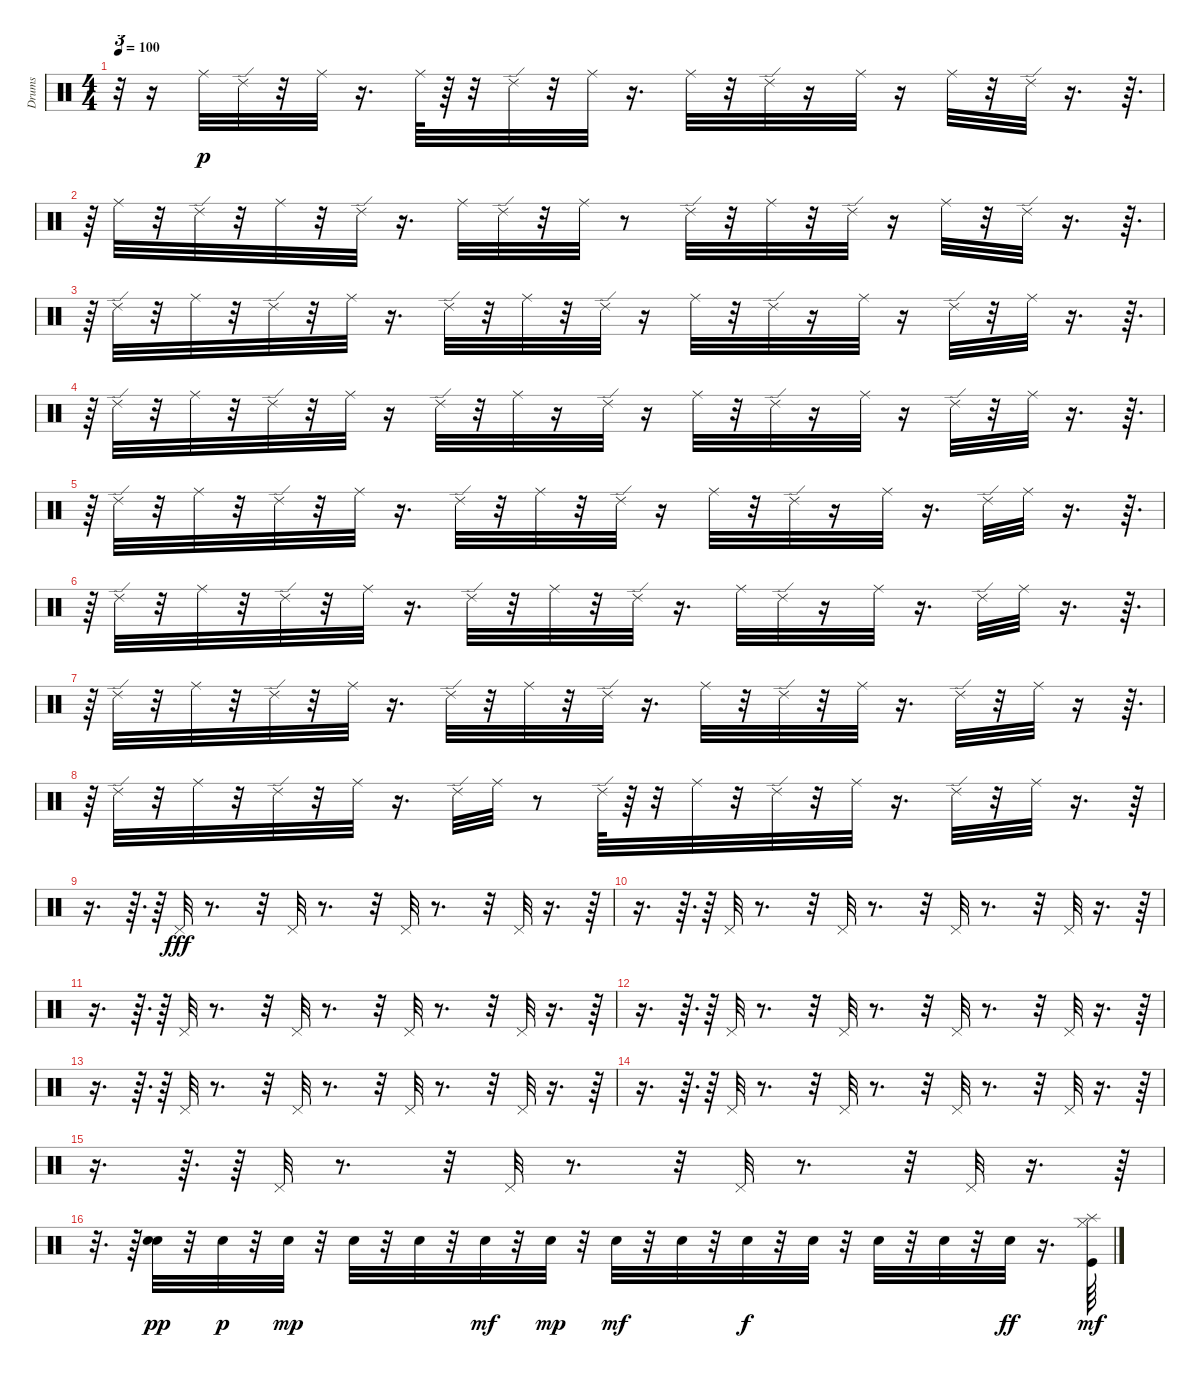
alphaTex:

\track ("Drums" "Drums") {instrument percussion}
\staff {score}
\articulation defaults
\ts (4 4)
\tempo 100
\clef neutral
\ks c
r.32{tu (3 2) dy p} r.16 "Ride (middle)".32 "Ride (edge) 2".32 r.32 "Ride (middle)".32 r.16{d} "Ride (middle)".64 r.64 r.32 "Ride (edge) 2".32 r.32 "Ride (middle)".32 r.16{d} "Ride (middle)".32 r.32 "Ride (edge) 2".32 r.16 "Ride (middle)".32 r.16 "Ride (middle)".32 r.32 "Ride (edge) 2".32 r.16{d} r.64{d} |
r.64 "Ride (middle)".32 r.32 "Ride (edge) 2".32 r.32 "Ride (middle)".32 r.32 "Ride (edge) 2".32 r.16{d} "Ride (middle)".32 "Ride (edge) 2".32 r.32 "Ride (middle)".32 r.8 "Ride (edge) 2".32 r.32 "Ride (middle)".32 r.32 "Ride (edge) 2".32 r.16 "Ride (middle)".32 r.32 "Ride (edge) 2".32 r.16{d} r.64{d} |
r.64 "Ride (edge) 2".32 r.32 "Ride (middle)".32 r.32 "Ride (edge) 2".32 r.32 "Ride (middle)".32 r.16{d} "Ride (edge) 2".32 r.32 "Ride (middle)".32 r.32 "Ride (edge) 2".32 r.16 "Ride (middle)".32 r.32 "Ride (edge) 2".32 r.16 "Ride (middle)".32 r.16 "Ride (edge) 2".32 r.32 "Ride (middle)".32 r.16{d} r.64{d} |
r.64 "Ride (edge) 2".32 r.32 "Ride (middle)".32 r.32 "Ride (edge) 2".32 r.32 "Ride (middle)".32 r.16 "Ride (edge) 2".32 r.32 "Ride (middle)".32 r.16 "Ride (edge) 2".32 r.16 "Ride (middle)".32 r.32 "Ride (edge) 2".32 r.16 "Ride (middle)".32 r.16 "Ride (edge) 2".32 r.32 "Ride (middle)".32 r.16{d} r.64{d} |
r.64 "Ride (edge) 2".32 r.32 "Ride (middle)".32 r.32 "Ride (edge) 2".32 r.32 "Ride (middle)".32 r.16{d} "Ride (edge) 2".32 r.32 "Ride (middle)".32 r.32 "Ride (edge) 2".32 r.16 "Ride (middle)".32 r.32 "Ride (edge) 2".32 r.16 "Ride (middle)".32 r.16{d} "Ride (edge) 2".32 "Ride (middle)".32 r.16{d} r.64{d} |
r.64 "Ride (edge) 2".32 r.32 "Ride (middle)".32 r.32 "Ride (edge) 2".32 r.32 "Ride (middle)".32 r.16{d} "Ride (edge) 2".32 r.32 "Ride (middle)".32 r.32 "Ride (edge) 2".32 r.16{d} "Ride (middle)".32 "Ride (edge) 2".32 r.16 "Ride (middle)".32 r.16{d} "Ride (edge) 2".32 "Ride (middle)".32 r.16{d} r.64{d} |
r.64 "Ride (edge) 2".32 r.32 "Ride (middle)".32 r.32 "Ride (edge) 2".32 r.32 "Ride (middle)".32 r.16{d} "Ride (edge) 2".32 r.32 "Ride (middle)".32 r.32 "Ride (edge) 2".32 r.16{d} "Ride (middle)".32 r.32 "Ride (edge) 2".32 r.32 "Ride (middle)".32 r.16{d} "Ride (edge) 2".32 r.32 "Ride (middle)".32 r.16 r.64{d} |
r.64 "Ride (edge) 2".32 r.32 "Ride (middle)".32 r.32 "Ride (edge) 2".32 r.32 "Ride (middle)".32 r.16{d} "Ride (edge) 2".32 "Ride (middle)".32 r.8 "Ride (edge) 2".64 r.64 r.32 "Ride (middle)".32 r.32 "Ride (edge) 2".32 r.32 "Ride (middle)".32 r.16{d} "Ride (edge) 2".32 r.32 "Ride (middle)".32 r.16{d} r.64 |
r.16{d} r.64{d} r.64 "Pedal Hi-Hat (hit)".32{dy fff} r.8{d} r.32 "Pedal Hi-Hat (hit)".32 r.8{d} r.32 "Pedal Hi-Hat (hit)".32 r.8{d} r.32 "Pedal Hi-Hat (hit)".32 r.16{d} r.64 |
r.16{d} r.64{d} r.64 "Pedal Hi-Hat (hit)".32 r.8{d} r.32 "Pedal Hi-Hat (hit)".32 r.8{d} r.32 "Pedal Hi-Hat (hit)".32 r.8{d} r.32 "Pedal Hi-Hat (hit)".32 r.16{d} r.64 |
r.16{d} r.64{d} r.64 "Pedal Hi-Hat (hit)".32 r.8{d} r.32 "Pedal Hi-Hat (hit)".32 r.8{d} r.32 "Pedal Hi-Hat (hit)".32 r.8{d} r.32 "Pedal Hi-Hat (hit)".32 r.16{d} r.64 |
r.16{d} r.64{d} r.64 "Pedal Hi-Hat (hit)".32 r.8{d} r.32 "Pedal Hi-Hat (hit)".32 r.8{d} r.32 "Pedal Hi-Hat (hit)".32 r.8{d} r.32 "Pedal Hi-Hat (hit)".32 r.16{d} r.64 |
r.16{d} r.64{d} r.64 "Pedal Hi-Hat (hit)".32 r.8{d} r.32 "Pedal Hi-Hat (hit)".32 r.8{d} r.32 "Pedal Hi-Hat (hit)".32 r.8{d} r.32 "Pedal Hi-Hat (hit)".32 r.16{d} r.64 |
r.16{d} r.64{d} r.64 "Pedal Hi-Hat (hit)".32 r.8{d} r.32 "Pedal Hi-Hat (hit)".32 r.8{d} r.32 "Pedal Hi-Hat (hit)".32 r.8{d} r.32 "Pedal Hi-Hat (hit)".32 r.16{d} r.64 |
r.16{d} r.64{d} r.64 "Pedal Hi-Hat (hit)".32 r.8{d} r.32 "Pedal Hi-Hat (hit)".32 r.8{d} r.32 "Pedal Hi-Hat (hit)".32 r.8{d} r.32 "Pedal Hi-Hat (hit)".32 r.16{d} r.64 |
r.32{d} r.64 ("Snare (hit) 2" "Snare (hit) 2").32{dy pp} r.32 "Snare (hit) 2".32{dy p} r.32 "Snare (hit) 2".32{dy mp} r.32 "Snare (hit) 2".32 r.32 "Snare (hit) 2".32 r.32 "Snare (hit) 2".32{dy mf} r.32 "Snare (hit) 2".32{dy mp} r.32 "Snare (hit) 2".32{dy mf} r.32 "Snare (hit) 2".32 r.32 "Snare (hit) 2".32{dy f} r.32 "Snare (hit) 2".32 r.32 "Snare (hit) 2".32 r.32 "Snare (hit) 2".32 r.32 "Snare (hit) 2".32{dy ff} r.16{d} ("Kick (hit)" "Splash (hit)" "Hi-Hat (closed)").64{dy mf}
